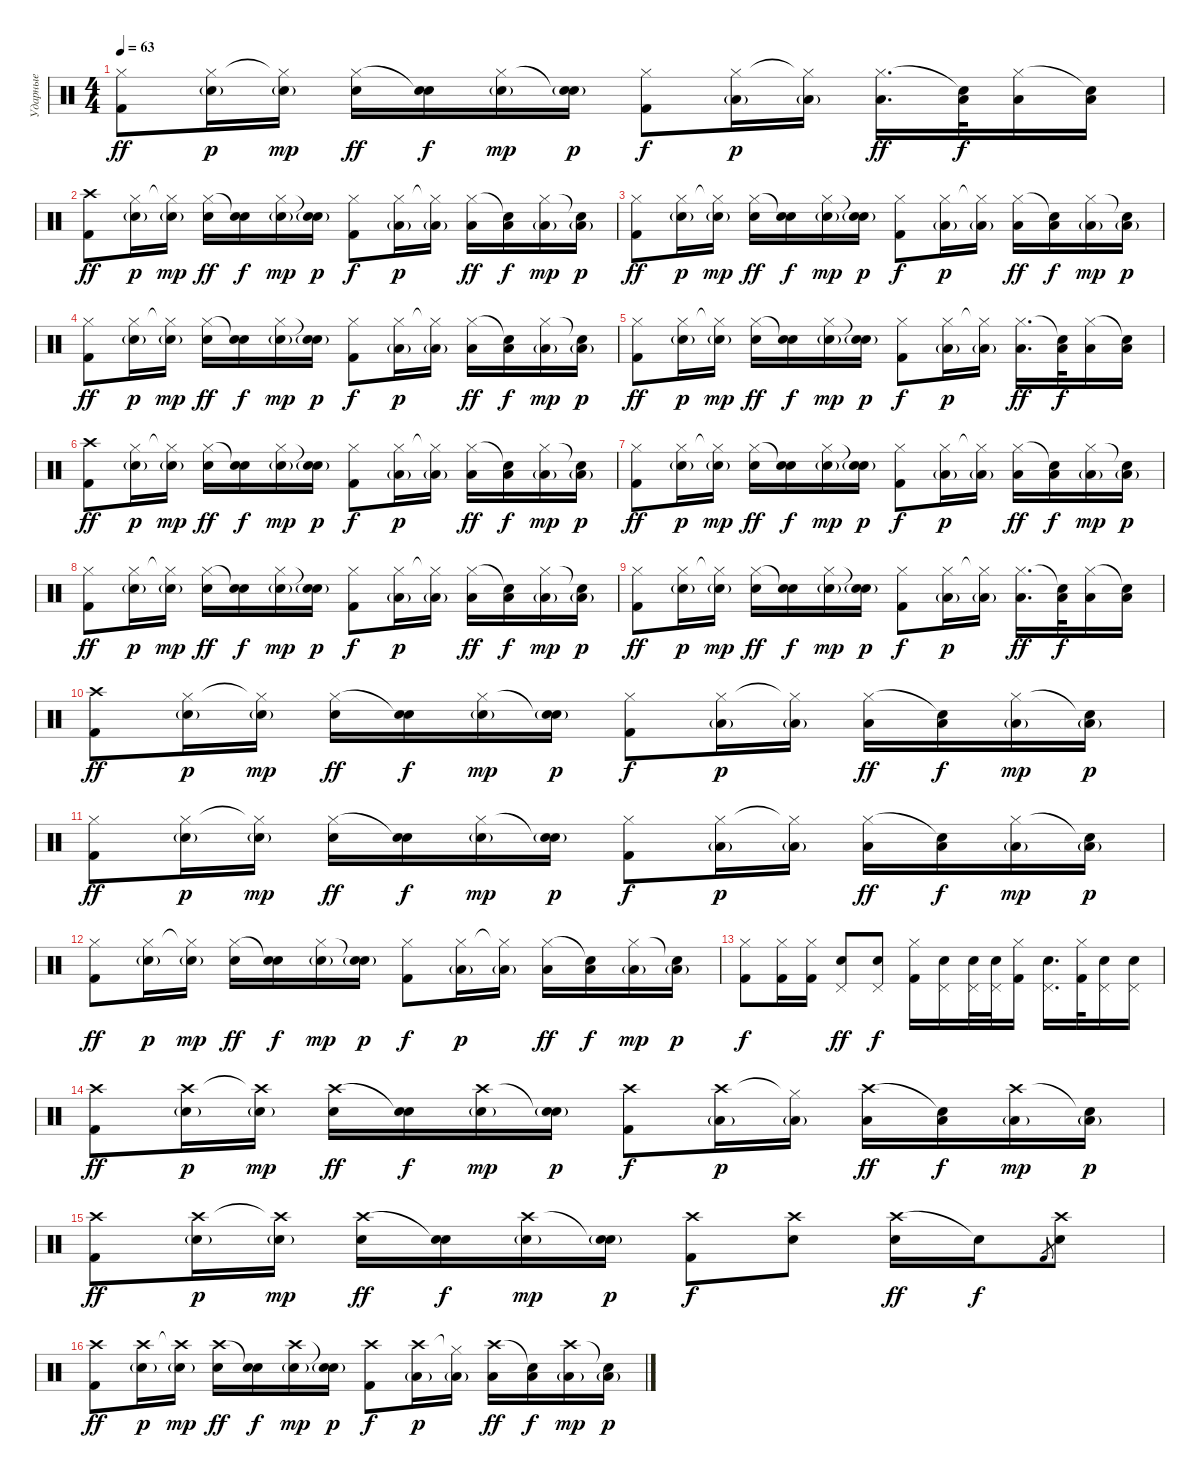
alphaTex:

\track ("Ударные" "Ударные") {instrument percussion}
\staff {score}
\articulation defaults
\ts (4 4)
\tempo 63
\clef neutral
\ks c
("Hi-Hat (closed)" "Kick (hit) 2").8{dy ff} ("Hi-Hat (closed)" "Snare (hit) 2"{g}).16{dy p} ("Hi-Hat (closed)"{t} "Snare (hit) 2"{g}).16{dy mp} ("Hi-Hat (closed)" "Snare (hit) 2").16{dy ff} ("Snare (hit)"{t} "Snare (hit) 2").16{dy f} ("Hi-Hat (closed)" "Snare (hit) 2"{g}).16{dy mp} ("Snare (hit)"{t} "Snare (hit) 2"{g}).16{dy p} ("Hi-Hat (closed)" "Kick (hit) 2").8{dy f} ("Hi-Hat (closed)" "Low Floor Tom (hit)"{g}).16{dy p} ("Hi-Hat (closed)"{t} "Low Floor Tom (hit)"{g}).16 ("Hi-Hat (closed)" "Low Floor Tom (hit)").16{d dy ff} ("Snare (hit)"{t} "Low Floor Tom (hit)").32{dy f} ("Hi-Hat (closed)" "Low Floor Tom (hit)").16 ("Snare (hit)"{t} "Low Floor Tom (hit)").16 |
("Crash high (hit)" "Kick (hit) 2").8{dy ff} ("Hi-Hat (closed)" "Snare (hit) 2"{g}).16{dy p} ("Hi-Hat (closed)"{t} "Snare (hit) 2"{g}).16{dy mp} ("Hi-Hat (closed)" "Snare (hit) 2").16{dy ff} ("Snare (hit)"{t} "Snare (hit) 2").16{dy f} ("Hi-Hat (closed)" "Snare (hit) 2"{g}).16{dy mp} ("Snare (hit)"{t} "Snare (hit) 2"{g}).16{dy p} ("Hi-Hat (closed)" "Kick (hit) 2").8{dy f} ("Hi-Hat (closed)" "Low Floor Tom (hit)"{g}).16{dy p} ("Hi-Hat (closed)"{t} "Low Floor Tom (hit)"{g}).16 ("Hi-Hat (closed)" "Low Floor Tom (hit)").16{dy ff} ("Snare (hit)"{t} "Low Floor Tom (hit)").16{dy f} ("Hi-Hat (closed)" "Low Floor Tom (hit)"{g}).16{dy mp} ("Snare (hit)"{t} "Low Floor Tom (hit)"{g}).16{dy p} |
("Hi-Hat (closed)" "Kick (hit) 2").8{dy ff} ("Hi-Hat (closed)" "Snare (hit) 2"{g}).16{dy p} ("Hi-Hat (closed)"{t} "Snare (hit) 2"{g}).16{dy mp} ("Hi-Hat (closed)" "Snare (hit) 2").16{dy ff} ("Snare (hit)"{t} "Snare (hit) 2").16{dy f} ("Hi-Hat (closed)" "Snare (hit) 2"{g}).16{dy mp} ("Snare (hit)"{t} "Snare (hit) 2"{g}).16{dy p} ("Hi-Hat (closed)" "Kick (hit) 2").8{dy f} ("Hi-Hat (closed)" "Low Floor Tom (hit)"{g}).16{dy p} ("Hi-Hat (closed)"{t} "Low Floor Tom (hit)"{g}).16 ("Hi-Hat (closed)" "Low Floor Tom (hit)").16{dy ff} ("Snare (hit)"{t} "Low Floor Tom (hit)").16{dy f} ("Hi-Hat (closed)" "Low Floor Tom (hit)"{g}).16{dy mp} ("Snare (hit)"{t} "Low Floor Tom (hit)"{g}).16{dy p} |
("Hi-Hat (closed)" "Kick (hit) 2").8{dy ff} ("Hi-Hat (closed)" "Snare (hit) 2"{g}).16{dy p} ("Hi-Hat (closed)"{t} "Snare (hit) 2"{g}).16{dy mp} ("Hi-Hat (closed)" "Snare (hit) 2").16{dy ff} ("Snare (hit)"{t} "Snare (hit) 2").16{dy f} ("Hi-Hat (closed)" "Snare (hit) 2"{g}).16{dy mp} ("Snare (hit)"{t} "Snare (hit) 2"{g}).16{dy p} ("Hi-Hat (closed)" "Kick (hit) 2").8{dy f} ("Hi-Hat (closed)" "Low Floor Tom (hit)"{g}).16{dy p} ("Hi-Hat (closed)"{t} "Low Floor Tom (hit)"{g}).16 ("Hi-Hat (closed)" "Low Floor Tom (hit)").16{dy ff} ("Snare (hit)"{t} "Low Floor Tom (hit)").16{dy f} ("Hi-Hat (closed)" "Low Floor Tom (hit)"{g}).16{dy mp} ("Snare (hit)"{t} "Low Floor Tom (hit)"{g}).16{dy p} |
("Hi-Hat (closed)" "Kick (hit) 2").8{dy ff} ("Hi-Hat (closed)" "Snare (hit) 2"{g}).16{dy p} ("Hi-Hat (closed)"{t} "Snare (hit) 2"{g}).16{dy mp} ("Hi-Hat (closed)" "Snare (hit) 2").16{dy ff} ("Snare (hit)"{t} "Snare (hit) 2").16{dy f} ("Hi-Hat (closed)" "Snare (hit) 2"{g}).16{dy mp} ("Snare (hit)"{t} "Snare (hit) 2"{g}).16{dy p} ("Hi-Hat (closed)" "Kick (hit) 2").8{dy f} ("Hi-Hat (closed)" "Low Floor Tom (hit)"{g}).16{dy p} ("Hi-Hat (closed)"{t} "Low Floor Tom (hit)"{g}).16 ("Hi-Hat (closed)" "Low Floor Tom (hit)").16{d dy ff} ("Snare (hit)"{t} "Low Floor Tom (hit)").32{dy f} ("Hi-Hat (closed)" "Low Floor Tom (hit)").16 ("Snare (hit)"{t} "Low Floor Tom (hit)").16 |
("Crash high (hit)" "Kick (hit) 2").8{dy ff} ("Hi-Hat (closed)" "Snare (hit) 2"{g}).16{dy p} ("Hi-Hat (closed)"{t} "Snare (hit) 2"{g}).16{dy mp} ("Hi-Hat (closed)" "Snare (hit) 2").16{dy ff} ("Snare (hit)"{t} "Snare (hit) 2").16{dy f} ("Hi-Hat (closed)" "Snare (hit) 2"{g}).16{dy mp} ("Snare (hit)"{t} "Snare (hit) 2"{g}).16{dy p} ("Hi-Hat (closed)" "Kick (hit) 2").8{dy f} ("Hi-Hat (closed)" "Low Floor Tom (hit)"{g}).16{dy p} ("Hi-Hat (closed)"{t} "Low Floor Tom (hit)"{g}).16 ("Hi-Hat (closed)" "Low Floor Tom (hit)").16{dy ff} ("Snare (hit)"{t} "Low Floor Tom (hit)").16{dy f} ("Hi-Hat (closed)" "Low Floor Tom (hit)"{g}).16{dy mp} ("Snare (hit)"{t} "Low Floor Tom (hit)"{g}).16{dy p} |
("Hi-Hat (closed)" "Kick (hit) 2").8{dy ff} ("Hi-Hat (closed)" "Snare (hit) 2"{g}).16{dy p} ("Hi-Hat (closed)"{t} "Snare (hit) 2"{g}).16{dy mp} ("Hi-Hat (closed)" "Snare (hit) 2").16{dy ff} ("Snare (hit)"{t} "Snare (hit) 2").16{dy f} ("Hi-Hat (closed)" "Snare (hit) 2"{g}).16{dy mp} ("Snare (hit)"{t} "Snare (hit) 2"{g}).16{dy p} ("Hi-Hat (closed)" "Kick (hit) 2").8{dy f} ("Hi-Hat (closed)" "Low Floor Tom (hit)"{g}).16{dy p} ("Hi-Hat (closed)"{t} "Low Floor Tom (hit)"{g}).16 ("Hi-Hat (closed)" "Low Floor Tom (hit)").16{dy ff} ("Snare (hit)"{t} "Low Floor Tom (hit)").16{dy f} ("Hi-Hat (closed)" "Low Floor Tom (hit)"{g}).16{dy mp} ("Snare (hit)"{t} "Low Floor Tom (hit)"{g}).16{dy p} |
("Hi-Hat (closed)" "Kick (hit) 2").8{dy ff} ("Hi-Hat (closed)" "Snare (hit) 2"{g}).16{dy p} ("Hi-Hat (closed)"{t} "Snare (hit) 2"{g}).16{dy mp} ("Hi-Hat (closed)" "Snare (hit) 2").16{dy ff} ("Snare (hit)"{t} "Snare (hit) 2").16{dy f} ("Hi-Hat (closed)" "Snare (hit) 2"{g}).16{dy mp} ("Snare (hit)"{t} "Snare (hit) 2"{g}).16{dy p} ("Hi-Hat (closed)" "Kick (hit) 2").8{dy f} ("Hi-Hat (closed)" "Low Floor Tom (hit)"{g}).16{dy p} ("Hi-Hat (closed)"{t} "Low Floor Tom (hit)"{g}).16 ("Hi-Hat (closed)" "Low Floor Tom (hit)").16{dy ff} ("Snare (hit)"{t} "Low Floor Tom (hit)").16{dy f} ("Hi-Hat (closed)" "Low Floor Tom (hit)"{g}).16{dy mp} ("Snare (hit)"{t} "Low Floor Tom (hit)"{g}).16{dy p} |
("Hi-Hat (closed)" "Kick (hit) 2").8{dy ff} ("Hi-Hat (closed)" "Snare (hit) 2"{g}).16{dy p} ("Hi-Hat (closed)"{t} "Snare (hit) 2"{g}).16{dy mp} ("Hi-Hat (closed)" "Snare (hit) 2").16{dy ff} ("Snare (hit)"{t} "Snare (hit) 2").16{dy f} ("Hi-Hat (closed)" "Snare (hit) 2"{g}).16{dy mp} ("Snare (hit)"{t} "Snare (hit) 2"{g}).16{dy p} ("Hi-Hat (closed)" "Kick (hit) 2").8{dy f} ("Hi-Hat (closed)" "Low Floor Tom (hit)"{g}).16{dy p} ("Hi-Hat (closed)"{t} "Low Floor Tom (hit)"{g}).16 ("Hi-Hat (closed)" "Low Floor Tom (hit)").16{d dy ff} ("Snare (hit)"{t} "Low Floor Tom (hit)").32{dy f} ("Hi-Hat (closed)" "Low Floor Tom (hit)").16 ("Snare (hit)"{t} "Low Floor Tom (hit)").16 |
("Crash high (hit)" "Kick (hit) 2").8{dy ff} ("Hi-Hat (closed)" "Snare (hit) 2"{g}).16{dy p} ("Hi-Hat (closed)"{t} "Snare (hit) 2"{g}).16{dy mp} ("Hi-Hat (closed)" "Snare (hit) 2").16{dy ff} ("Snare (hit)"{t} "Snare (hit) 2").16{dy f} ("Hi-Hat (closed)" "Snare (hit) 2"{g}).16{dy mp} ("Snare (hit)"{t} "Snare (hit) 2"{g}).16{dy p} ("Hi-Hat (closed)" "Kick (hit) 2").8{dy f} ("Hi-Hat (closed)" "Low Floor Tom (hit)"{g}).16{dy p} ("Hi-Hat (closed)"{t} "Low Floor Tom (hit)"{g}).16 ("Hi-Hat (closed)" "Low Floor Tom (hit)").16{dy ff} ("Snare (hit)"{t} "Low Floor Tom (hit)").16{dy f} ("Hi-Hat (closed)" "Low Floor Tom (hit)"{g}).16{dy mp} ("Snare (hit)"{t} "Low Floor Tom (hit)"{g}).16{dy p} |
("Hi-Hat (closed)" "Kick (hit) 2").8{dy ff} ("Hi-Hat (closed)" "Snare (hit) 2"{g}).16{dy p} ("Hi-Hat (closed)"{t} "Snare (hit) 2"{g}).16{dy mp} ("Hi-Hat (closed)" "Snare (hit) 2").16{dy ff} ("Snare (hit)"{t} "Snare (hit) 2").16{dy f} ("Hi-Hat (closed)" "Snare (hit) 2"{g}).16{dy mp} ("Snare (hit)"{t} "Snare (hit) 2"{g}).16{dy p} ("Hi-Hat (closed)" "Kick (hit) 2").8{dy f} ("Hi-Hat (closed)" "Low Floor Tom (hit)"{g}).16{dy p} ("Hi-Hat (closed)"{t} "Low Floor Tom (hit)"{g}).16 ("Hi-Hat (closed)" "Low Floor Tom (hit)").16{dy ff} ("Snare (hit)"{t} "Low Floor Tom (hit)").16{dy f} ("Hi-Hat (closed)" "Low Floor Tom (hit)"{g}).16{dy mp} ("Snare (hit)"{t} "Low Floor Tom (hit)"{g}).16{dy p} |
("Hi-Hat (closed)" "Kick (hit) 2").8{dy ff} ("Hi-Hat (closed)" "Snare (hit) 2"{g}).16{dy p} ("Hi-Hat (closed)"{t} "Snare (hit) 2"{g}).16{dy mp} ("Hi-Hat (closed)" "Snare (hit) 2").16{dy ff} ("Snare (hit)"{t} "Snare (hit) 2").16{dy f} ("Hi-Hat (closed)" "Snare (hit) 2"{g}).16{dy mp} ("Snare (hit)"{t} "Snare (hit) 2"{g}).16{dy p} ("Hi-Hat (closed)" "Kick (hit) 2").8{dy f} ("Hi-Hat (closed)" "Low Floor Tom (hit)"{g}).16{dy p} ("Hi-Hat (closed)"{t} "Low Floor Tom (hit)"{g}).16 ("Hi-Hat (closed)" "Low Floor Tom (hit)").16{dy ff} ("Snare (hit)"{t} "Low Floor Tom (hit)").16{dy f} ("Hi-Hat (closed)" "Low Floor Tom (hit)"{g}).16{dy mp} ("Snare (hit)"{t} "Low Floor Tom (hit)"{g}).16{dy p} |
("Hi-Hat (closed)" "Kick (hit) 2").8{dy f} ("Hi-Hat (closed)" "Kick (hit) 2").16 ("Hi-Hat (closed)" "Kick (hit) 2").16 ("Pedal Hi-Hat (hit)" "Snare (hit) 2").8{dy ff} ("Pedal Hi-Hat (hit)" "Snare (hit) 2").8{dy f} ("Hi-Hat (closed)" "Kick (hit) 2").16 ("Pedal Hi-Hat (hit)" "Snare (hit) 2").16 ("Pedal Hi-Hat (hit)" "Snare (hit) 2").32 ("Pedal Hi-Hat (hit)" "Snare (hit) 2").32 ("Hi-Hat (closed)" "Kick (hit) 2").16 ("Pedal Hi-Hat (hit)" "Snare (hit) 2").16{d} ("Hi-Hat (closed)" "Kick (hit) 2").32 ("Pedal Hi-Hat (hit)" "Snare (hit) 2").16 ("Pedal Hi-Hat (hit)" "Snare (hit) 2").16 |
("Crash high (hit)" "Kick (hit) 2").8{dy ff volume 16} ("Crash high (hit)" "Snare (hit) 2"{g}).16{dy p} ("Crash high (hit)"{t} "Snare (hit) 2"{g}).16{dy mp} ("Crash high (hit)" "Snare (hit) 2").16{dy ff} ("Snare (hit)"{t} "Snare (hit) 2").16{dy f} ("Crash high (hit)" "Snare (hit) 2"{g}).16{dy mp} ("Snare (hit)"{t} "Snare (hit) 2"{g}).16{dy p} ("Crash high (hit)" "Kick (hit) 2").8{dy f} ("Crash high (hit)" "Low Floor Tom (hit)"{g}).16{dy p} ("Hi-Hat (closed)"{t} "Low Floor Tom (hit)"{g}).16 ("Crash high (hit)" "Low Floor Tom (hit)").16{dy ff} ("Snare (hit)"{t} "Low Floor Tom (hit)").16{dy f} ("Crash high (hit)" "Low Floor Tom (hit)"{g}).16{dy mp} ("Snare (hit)"{t} "Low Floor Tom (hit)"{g}).16{dy p} |
("Crash high (hit)" "Kick (hit) 2").8{dy ff} ("Crash high (hit)" "Snare (hit) 2"{g}).16{dy p} ("Crash high (hit)"{t} "Snare (hit) 2"{g}).16{dy mp} ("Crash high (hit)" "Snare (hit) 2").16{dy ff} ("Snare (hit)"{t} "Snare (hit) 2").16{dy f} ("Crash high (hit)" "Snare (hit) 2"{g}).16{dy mp} ("Snare (hit)"{t} "Snare (hit) 2"{g}).16{dy p} ("Crash high (hit)" "Kick (hit) 2").8{dy f} ("Crash high (hit)" "Snare (hit) 2").8 ("Crash high (hit)" "Snare (hit) 2").16{dy ff} "Snare (hit)"{t}.16{dy f} "Kick (hit) 2".8{gr} ("Crash high (hit)" "Snare (hit) 2").8 |
("Crash high (hit)" "Kick (hit) 2").8{dy ff} ("Crash high (hit)" "Snare (hit) 2"{g}).16{dy p} ("Crash high (hit)"{t} "Snare (hit) 2"{g}).16{dy mp} ("Crash high (hit)" "Snare (hit) 2").16{dy ff} ("Snare (hit)"{t} "Snare (hit) 2").16{dy f} ("Crash high (hit)" "Snare (hit) 2"{g}).16{dy mp} ("Snare (hit)"{t} "Snare (hit) 2"{g}).16{dy p} ("Crash high (hit)" "Kick (hit) 2").8{dy f} ("Crash high (hit)" "Low Floor Tom (hit)"{g}).16{dy p} ("Hi-Hat (closed)"{t} "Low Floor Tom (hit)"{g}).16 ("Crash high (hit)" "Low Floor Tom (hit)").16{dy ff} ("Snare (hit)"{t} "Low Floor Tom (hit)").16{dy f} ("Crash high (hit)" "Low Floor Tom (hit)"{g}).16{dy mp} ("Snare (hit)"{t} "Low Floor Tom (hit)"{g}).16{dy p}
